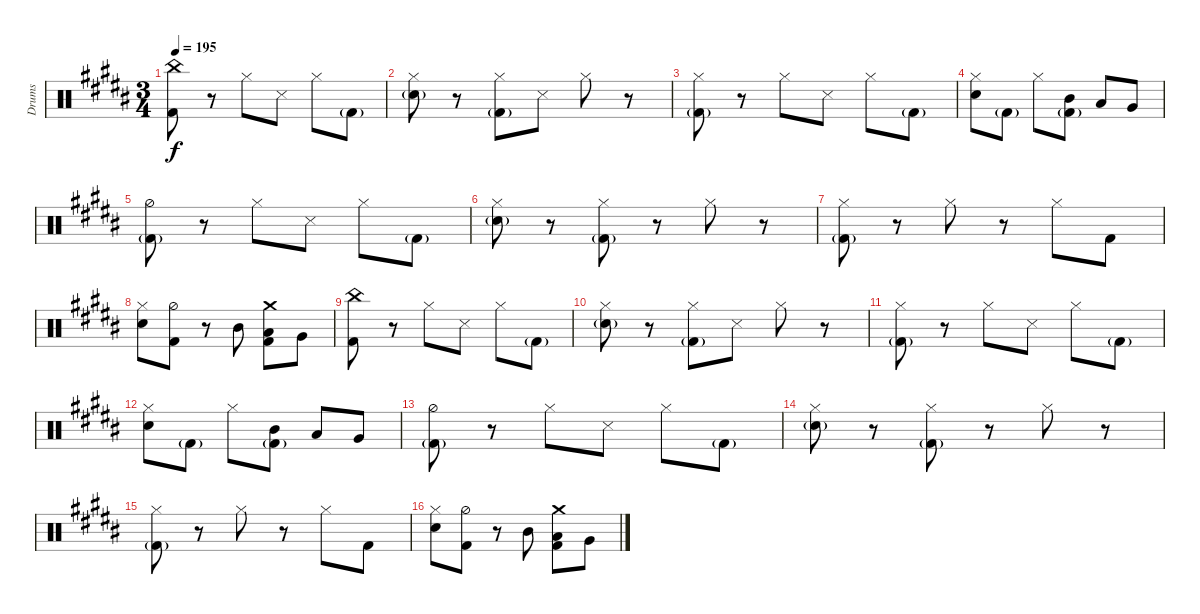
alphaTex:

\bracketExtendMode groupsimilarinstruments
\otherSystemsTrackNameOrientation horizontal
\track ("Drumkit" "Drums") {instrument percussion}
\staff {score}
\articulation defaults
\ts (3 4)
\tempo 195
\clef neutral
\ks b
("Kick (hit) 2"{acc bb} "China (hit)"{acc bb}).8{dy f beam Down} r.8{beam Down} "Hi-Hat (closed)"{acc bb}.8{beam Down} "Snare (side stick) 3"{acc bb}.8{beam Down} "Hi-Hat (closed)"{acc bb}.8{beam Down} "Kick (hit) 2"{g acc bb}.8{beam Down} |
("Snare (hit) 2"{g acc bb} "Hi-Hat (closed)"{acc bb}).8{beam Down} r.8{beam Down} ("Kick (hit) 2"{g acc bb} "Hi-Hat (closed)"{acc bb}).8{beam Down} "Snare (side stick) 3"{acc bb}.8{beam Down} "Hi-Hat (closed)"{acc bb}.8{beam Down} r.8{beam Down} |
("Kick (hit) 2"{g acc bb} "Hi-Hat (closed)"{acc bb}).8{beam Down} r.8{beam Down} "Hi-Hat (closed)"{acc bb}.8{beam Down} "Snare (side stick) 3"{acc bb}.8{beam Down} "Hi-Hat (closed)"{acc bb}.8{beam Down} "Kick (hit) 2"{g acc bb}.8{beam Down} |
("Snare (hit) 2"{acc bb} "Hi-Hat (closed)"{acc bb}).8{beam Down} "Kick (hit) 2"{g acc bb}.8{beam Down} "Hi-Hat (closed)"{acc bb}.8{beam Down} ("Mid Tom (hit)"{acc bb} "Kick (hit) 2"{g acc bb}).8{beam Down} "Low Tom (hit)"{acc bb}.8{beam Up} "Very Low Tom (hit)"{acc bb}.8{beam Up} |
("Kick (hit) 2"{g acc bb} "Hi-Hat (half)"{acc bb}).8{beam Down} r.8{beam Down} "Hi-Hat (closed)"{acc bb}.8{beam Down} "Snare (side stick) 3"{acc bb}.8{beam Down} "Hi-Hat (closed)"{acc bb}.8{beam Down} "Kick (hit) 2"{g acc bb}.8{beam Down} |
("Snare (hit) 2"{g acc bb} "Hi-Hat (closed)"{acc bb}).8{beam Down} r.8{beam Down} ("Kick (hit) 2"{g acc bb} "Hi-Hat (closed)"{acc bb}).8{beam Down} r.8{beam Down} "Hi-Hat (closed)"{acc bb}.8{beam Down} r.8{beam Down} |
("Kick (hit) 2"{g acc bb} "Hi-Hat (closed)"{acc bb}).8{beam Down} r.8{beam Down} "Hi-Hat (closed)"{acc bb}.8{beam Down} r.8{beam Down} "Hi-Hat (closed)"{acc bb}.8{beam Down} "Kick (hit) 2"{acc bb}.8{beam Down} |
("Snare (hit) 2"{acc bb} "Hi-Hat (closed)"{acc bb}).8{beam Down} ("Kick (hit) 2"{acc bb} "Hi-Hat (half)"{acc bb}).8{beam Down} r.8{beam Down} "Mid Tom (hit)"{acc bb}.8{beam Down} ("Low Tom (hit)"{acc bb} "Crash medium (hit)"{acc bb} "Kick (hit) 2"{acc bb}).8{beam Down} "Very Low Tom (hit)"{acc bb}.8{beam Down} |
("Kick (hit) 2"{acc bb} "China (hit)"{acc bb}).8{beam Down} r.8{beam Down} "Hi-Hat (closed)"{acc bb}.8{beam Down} "Snare (side stick) 3"{acc bb}.8{beam Down} "Hi-Hat (closed)"{acc bb}.8{beam Down} "Kick (hit) 2"{g acc bb}.8{beam Down} |
("Snare (hit) 2"{g acc bb} "Hi-Hat (closed)"{acc bb}).8{beam Down} r.8{beam Down} ("Kick (hit) 2"{g acc bb} "Hi-Hat (closed)"{acc bb}).8{beam Down} "Snare (side stick) 3"{acc bb}.8{beam Down} "Hi-Hat (closed)"{acc bb}.8{beam Down} r.8{beam Down} |
("Kick (hit) 2"{g acc bb} "Hi-Hat (closed)"{acc bb}).8{beam Down} r.8{beam Down} "Hi-Hat (closed)"{acc bb}.8{beam Down} "Snare (side stick) 3"{acc bb}.8{beam Down} "Hi-Hat (closed)"{acc bb}.8{beam Down} "Kick (hit) 2"{g acc bb}.8{beam Down} |
("Snare (hit) 2"{acc bb} "Hi-Hat (closed)"{acc bb}).8{beam Down} "Kick (hit) 2"{g acc bb}.8{beam Down} "Hi-Hat (closed)"{acc bb}.8{beam Down} ("Mid Tom (hit)"{acc bb} "Kick (hit) 2"{g acc bb}).8{beam Down} "Low Tom (hit)"{acc bb}.8{beam Up} "Very Low Tom (hit)"{acc bb}.8{beam Up} |
("Kick (hit) 2"{g acc bb} "Hi-Hat (half)"{acc bb}).8{beam Down} r.8{beam Down} "Hi-Hat (closed)"{acc bb}.8{beam Down} "Snare (side stick) 3"{acc bb}.8{beam Down} "Hi-Hat (closed)"{acc bb}.8{beam Down} "Kick (hit) 2"{g acc bb}.8{beam Down} |
("Snare (hit) 2"{g acc bb} "Hi-Hat (closed)"{acc bb}).8{beam Down} r.8{beam Down} ("Kick (hit) 2"{g acc bb} "Hi-Hat (closed)"{acc bb}).8{beam Down} r.8{beam Down} "Hi-Hat (closed)"{acc bb}.8{beam Down} r.8{beam Down} |
("Kick (hit) 2"{g acc bb} "Hi-Hat (closed)"{acc bb}).8{beam Down} r.8{beam Down} "Hi-Hat (closed)"{acc bb}.8{beam Down} r.8{beam Down} "Hi-Hat (closed)"{acc bb}.8{beam Down} "Kick (hit) 2"{acc bb}.8{beam Down} |
("Snare (hit) 2"{acc bb} "Hi-Hat (closed)"{acc bb}).8{beam Down} ("Kick (hit) 2"{acc bb} "Hi-Hat (half)"{acc bb}).8{beam Down} r.8{beam Down} "Mid Tom (hit)"{acc bb}.8{beam Down} ("Low Tom (hit)"{acc bb} "Crash medium (hit)"{acc bb} "Kick (hit) 2"{acc bb}).8{beam Down} "Very Low Tom (hit)"{acc bb}.8{beam Down}
